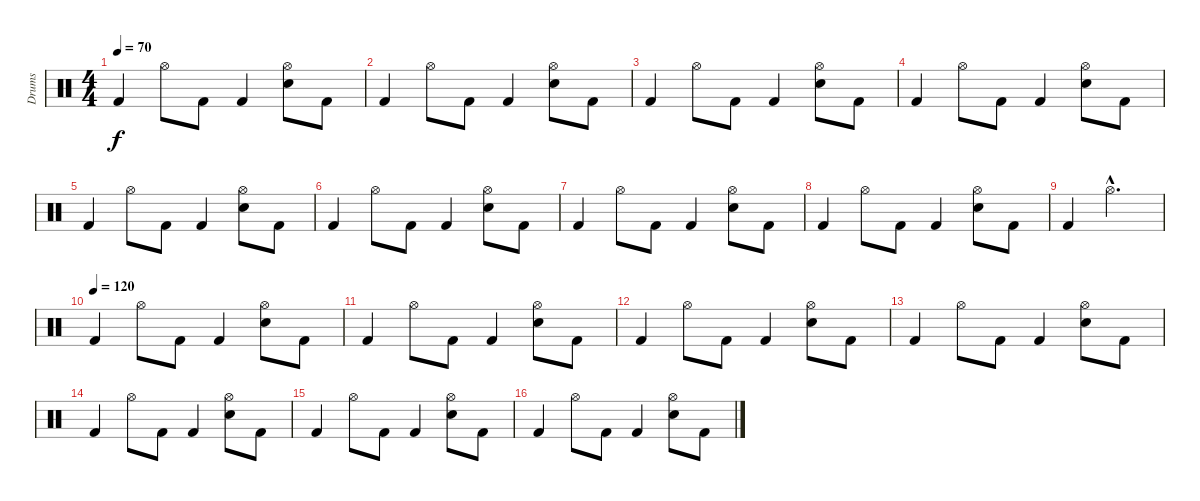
\track ("Drums" "Drums") {instrument percussion}
\staff {score}
\articulation defaults
\ts (4 4)
\tempo 70
\clef neutral
\ks c "Kick (hit) 2".4{dy f} "Hi-Hat (open)".8 "Kick (hit) 2".8 "Kick (hit) 2".4
("Hi-Hat (open)" "Electric Snare (hit)").8 "Kick (hit) 2".8 |
"Kick (hit) 2".4 "Hi-Hat (open)".8 "Kick (hit) 2".8 "Kick (hit) 2".4 ("Hi-Hat (open)" "Electric Snare (hit)").8 "Kick (hit) 2".8 |
"Kick (hit) 2".4 "Hi-Hat (open)".8 "Kick (hit) 2".8 "Kick (hit) 2".4 ("Hi-Hat (open)" "Electric Snare (hit)").8 "Kick (hit) 2".8 |
"Kick (hit) 2".4 "Hi-Hat (open)".8 "Kick (hit) 2".8 "Kick (hit) 2".4 ("Hi-Hat (open)" "Electric Snare (hit)").8 "Kick (hit) 2".8 |
"Kick (hit) 2".4 "Hi-Hat (open)".8 "Kick (hit) 2".8 "Kick (hit) 2".4 ("Hi-Hat (open)" "Electric Snare (hit)").8 "Kick (hit) 2".8 |
"Kick (hit) 2".4 "Hi-Hat (open)".8 "Kick (hit) 2".8 "Kick (hit) 2".4 ("Hi-Hat (open)" "Electric Snare (hit)").8 "Kick (hit) 2".8 |
"Kick (hit) 2".4 "Hi-Hat (open)".8 "Kick (hit) 2".8 "Kick (hit) 2".4 ("Hi-Hat (open)" "Electric Snare (hit)").8 "Kick (hit) 2".8 |
"Kick (hit) 2".4 "Hi-Hat (open)".8 "Kick (hit) 2".8 "Kick (hit) 2".4 ("Hi-Hat (open)" "Electric Snare (hit)").8 "Kick (hit) 2".8 |
"Kick (hit) 2".4 "Hi-Hat (open)"{hac}.2{d} |
\tempo (120)
"Kick (hit) 2".4 "Hi-Hat (open)".8 "Kick (hit) 2".8 "Kick (hit) 2".4 ("Hi-Hat (open)" "Electric Snare (hit)").8 "Kick (hit) 2".8 |
"Kick (hit) 2".4 "Hi-Hat (open)".8 "Kick (hit) 2".8 "Kick (hit) 2".4 ("Hi-Hat (open)" "Electric Snare (hit)").8 "Kick (hit) 2".8 |
"Kick (hit) 2".4 "Hi-Hat (open)".8 "Kick (hit) 2".8 "Kick (hit) 2".4 ("Hi-Hat (open)" "Electric Snare (hit)").8 "Kick (hit) 2".8 |
"Kick (hit) 2".4 "Hi-Hat (open)".8 "Kick (hit) 2".8 "Kick (hit) 2".4 ("Hi-Hat (open)" "Electric Snare (hit)").8 "Kick (hit) 2".8 |
"Kick (hit) 2".4 "Hi-Hat (open)".8 "Kick (hit) 2".8 "Kick (hit) 2".4 ("Hi-Hat (open)" "Electric Snare (hit)").8 "Kick (hit) 2".8 |
"Kick (hit) 2".4 "Hi-Hat (open)".8 "Kick (hit) 2".8 "Kick (hit) 2".4 ("Hi-Hat (open)" "Electric Snare (hit)").8 "Kick (hit) 2".8 |
"Kick (hit) 2".4 "Hi-Hat (open)".8 "Kick (hit) 2".8 "Kick (hit) 2".4 ("Hi-Hat (open)" "Electric Snare (hit)").8 "Kick (hit) 2".8
